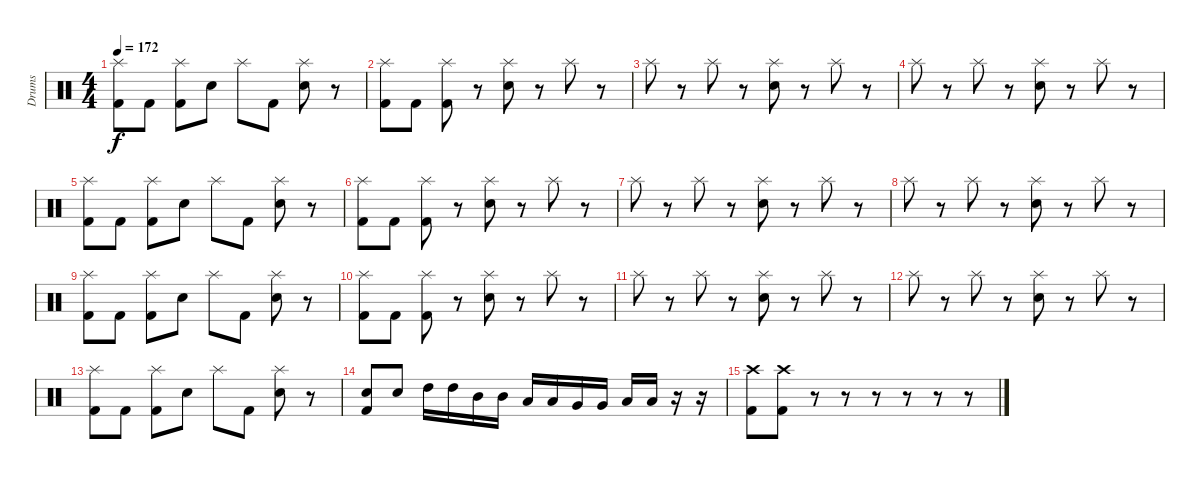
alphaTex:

\track ("Drums" "Drums") {instrument percussion}
\staff {score}
\articulation defaults
\ts (4 4)
\tempo 172
\clef neutral
\ks c
("Splash (hit)" "Kick (hit) 2").8{dy f} "Kick (hit) 2".8 ("Splash (hit)" "Kick (hit) 2").8 "Electric Snare (hit)".8 "Splash (hit)".8 "Kick (hit) 2".8 ("Splash (hit)" "Electric Snare (hit)").8 r.8 |
("Splash (hit)" "Kick (hit) 2").8 "Kick (hit) 2".8 ("Splash (hit)" "Kick (hit) 2").8 r.8 ("Splash (hit)" "Electric Snare (hit)").8 r.8 "Splash (hit)".8 r.8 |
"Splash (hit)".8 r.8 "Splash (hit)".8 r.8 ("Splash (hit)" "Electric Snare (hit)").8 r.8 "Splash (hit)".8 r.8 |
"Splash (hit)".8 r.8 "Splash (hit)".8 r.8 ("Splash (hit)" "Electric Snare (hit)").8 r.8 "Splash (hit)".8 r.8 |
("Splash (hit)" "Kick (hit) 2").8 "Kick (hit) 2".8 ("Splash (hit)" "Kick (hit) 2").8 "Electric Snare (hit)".8 "Splash (hit)".8 "Kick (hit) 2".8 ("Splash (hit)" "Electric Snare (hit)").8 r.8 |
("Splash (hit)" "Kick (hit) 2").8 "Kick (hit) 2".8 ("Splash (hit)" "Kick (hit) 2").8 r.8 ("Splash (hit)" "Electric Snare (hit)").8 r.8 "Splash (hit)".8 r.8 |
"Splash (hit)".8 r.8 "Splash (hit)".8 r.8 ("Splash (hit)" "Electric Snare (hit)").8 r.8 "Splash (hit)".8 r.8 |
"Splash (hit)".8 r.8 "Splash (hit)".8 r.8 ("Splash (hit)" "Electric Snare (hit)").8 r.8 "Splash (hit)".8 r.8 |
("Splash (hit)" "Kick (hit) 2").8 "Kick (hit) 2".8 ("Splash (hit)" "Kick (hit) 2").8 "Electric Snare (hit)".8 "Splash (hit)".8 "Kick (hit) 2".8 ("Splash (hit)" "Electric Snare (hit)").8 r.8 |
("Splash (hit)" "Kick (hit) 2").8 "Kick (hit) 2".8 ("Splash (hit)" "Kick (hit) 2").8 r.8 ("Splash (hit)" "Electric Snare (hit)").8 r.8 "Splash (hit)".8 r.8 |
"Splash (hit)".8 r.8 "Splash (hit)".8 r.8 ("Splash (hit)" "Electric Snare (hit)").8 r.8 "Splash (hit)".8 r.8 |
"Splash (hit)".8 r.8 "Splash (hit)".8 r.8 ("Splash (hit)" "Electric Snare (hit)").8 r.8 "Splash (hit)".8 r.8 |
("Splash (hit)" "Kick (hit) 2").8 "Kick (hit) 2".8 ("Splash (hit)" "Kick (hit) 2").8 "Electric Snare (hit)".8 "Splash (hit)".8 "Kick (hit) 2".8 ("Splash (hit)" "Electric Snare (hit)").8 r.8 |
("Electric Snare (hit)" "Kick (hit) 2").8 "Electric Snare (hit)".8 "High Tom (hit)".16 "High Tom (hit)".16 "Mid Tom (hit)".16 "Mid Tom (hit)".16 "Low Tom (hit)".16 "Low Tom (hit)".16 "Very Low Tom (hit)".16 "Very Low Tom (hit)".16 "Low Floor Tom (hit)".16 "Low Floor Tom (hit)".16 r.16 r.16 |
("Crash high (hit)" "Kick (hit) 2").8 ("Crash high (hit)" "Kick (hit) 2").8 r.8 r.8 r.8{volume 0} r.8 r.8 r.8
